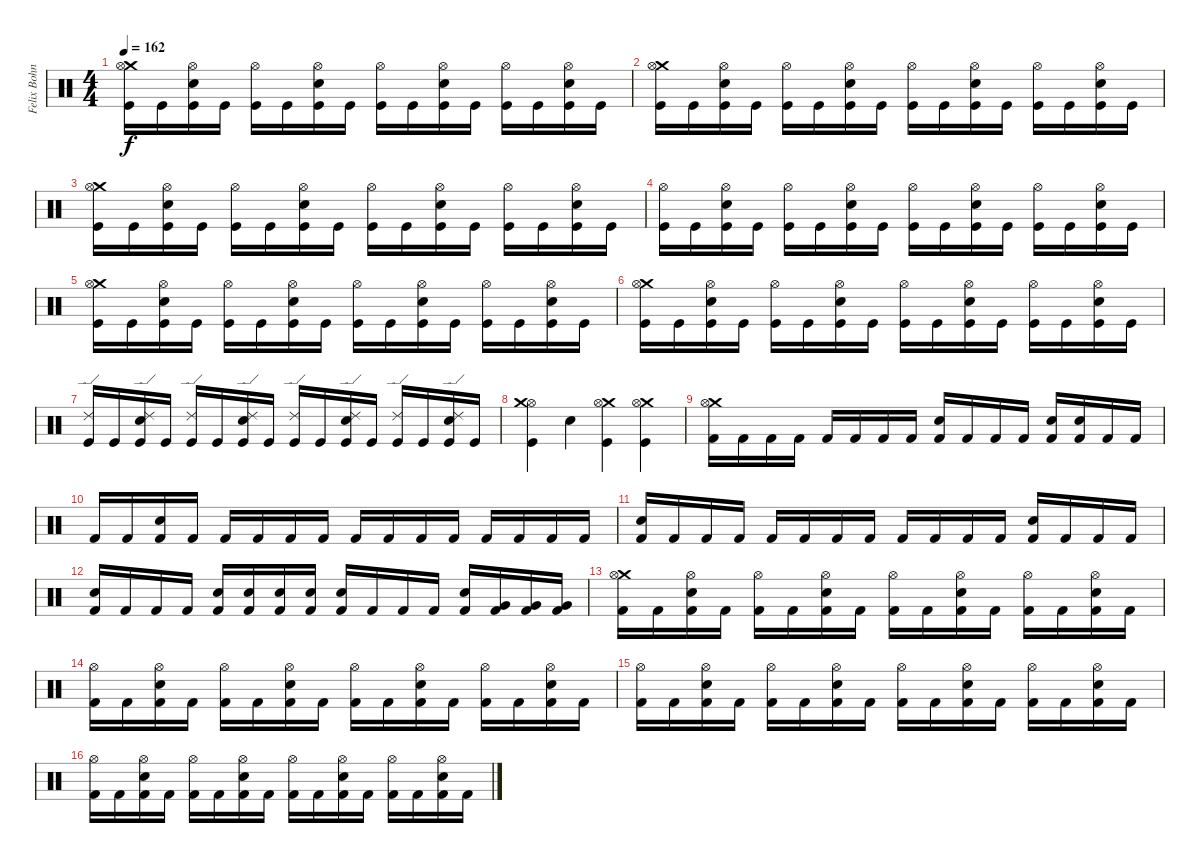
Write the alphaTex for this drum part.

\track ("Felix Bohnke" "Felix Bohn") {instrument percussion}
\staff {score}
\articulation defaults
\ts (4 4)
\tempo 162
\clef neutral
\ks c
("Crash medium (hit)" "Hi-Hat (open)" "Kick (hit)").16{dy f} "Kick (hit)".16 ("Electric Snare (hit)" "Hi-Hat (open)" "Kick (hit)").16 "Kick (hit)".16 ("Hi-Hat (open)" "Kick (hit)").16 "Kick (hit)".16 ("Electric Snare (hit)" "Hi-Hat (open)" "Kick (hit)").16 "Kick (hit)".16 ("Hi-Hat (open)" "Kick (hit)").16 "Kick (hit)".16 ("Electric Snare (hit)" "Hi-Hat (open)" "Kick (hit)").16 "Kick (hit)".16 ("Hi-Hat (open)" "Kick (hit)").16 "Kick (hit)".16 ("Electric Snare (hit)" "Hi-Hat (open)" "Kick (hit)").16 "Kick (hit)".16 |
("Crash medium (hit)" "Hi-Hat (open)" "Kick (hit)").16 "Kick (hit)".16 ("Electric Snare (hit)" "Hi-Hat (open)" "Kick (hit)").16 "Kick (hit)".16 ("Hi-Hat (open)" "Kick (hit)").16 "Kick (hit)".16 ("Electric Snare (hit)" "Hi-Hat (open)" "Kick (hit)").16 "Kick (hit)".16 ("Hi-Hat (open)" "Kick (hit)").16 "Kick (hit)".16 ("Electric Snare (hit)" "Hi-Hat (open)" "Kick (hit)").16 "Kick (hit)".16 ("Hi-Hat (open)" "Kick (hit)").16 "Kick (hit)".16 ("Electric Snare (hit)" "Hi-Hat (open)" "Kick (hit)").16 "Kick (hit)".16 |
("Crash medium (hit)" "Hi-Hat (open)" "Kick (hit)").16 "Kick (hit)".16 ("Electric Snare (hit)" "Hi-Hat (open)" "Kick (hit)").16 "Kick (hit)".16 ("Hi-Hat (open)" "Kick (hit)").16 "Kick (hit)".16 ("Electric Snare (hit)" "Hi-Hat (open)" "Kick (hit)").16 "Kick (hit)".16 ("Hi-Hat (open)" "Kick (hit)").16 "Kick (hit)".16 ("Electric Snare (hit)" "Hi-Hat (open)" "Kick (hit)").16 "Kick (hit)".16 ("Hi-Hat (open)" "Kick (hit)").16 "Kick (hit)".16 ("Electric Snare (hit)" "Hi-Hat (open)" "Kick (hit)").16 "Kick (hit)".16 |
("Hi-Hat (open)" "Kick (hit)").16 "Kick (hit)".16 ("Electric Snare (hit)" "Hi-Hat (open)" "Kick (hit)").16 "Kick (hit)".16 ("Hi-Hat (open)" "Kick (hit)").16 "Kick (hit)".16 ("Electric Snare (hit)" "Hi-Hat (open)" "Kick (hit)").16 "Kick (hit)".16 ("Hi-Hat (open)" "Kick (hit)").16 "Kick (hit)".16 ("Electric Snare (hit)" "Hi-Hat (open)" "Kick (hit)").16 "Kick (hit)".16 ("Hi-Hat (open)" "Kick (hit)").16 "Kick (hit)".16 ("Electric Snare (hit)" "Hi-Hat (open)" "Kick (hit)").16 "Kick (hit)".16 |
("Crash medium (hit)" "Hi-Hat (open)" "Kick (hit)").16 "Kick (hit)".16 ("Electric Snare (hit)" "Hi-Hat (open)" "Kick (hit)").16 "Kick (hit)".16 ("Hi-Hat (open)" "Kick (hit)").16 "Kick (hit)".16 ("Electric Snare (hit)" "Hi-Hat (open)" "Kick (hit)").16 "Kick (hit)".16 ("Hi-Hat (open)" "Kick (hit)").16 "Kick (hit)".16 ("Electric Snare (hit)" "Hi-Hat (open)" "Kick (hit)").16 "Kick (hit)".16 ("Hi-Hat (open)" "Kick (hit)").16 "Kick (hit)".16 ("Electric Snare (hit)" "Hi-Hat (open)" "Kick (hit)").16 "Kick (hit)".16 |
("Crash medium (hit)" "Hi-Hat (open)" "Kick (hit)").16 "Kick (hit)".16 ("Electric Snare (hit)" "Hi-Hat (open)" "Kick (hit)").16 "Kick (hit)".16 ("Hi-Hat (open)" "Kick (hit)").16 "Kick (hit)".16 ("Electric Snare (hit)" "Hi-Hat (open)" "Kick (hit)").16 "Kick (hit)".16 ("Hi-Hat (open)" "Kick (hit)").16 "Kick (hit)".16 ("Electric Snare (hit)" "Hi-Hat (open)" "Kick (hit)").16 "Kick (hit)".16 ("Hi-Hat (open)" "Kick (hit)").16 "Kick (hit)".16 ("Electric Snare (hit)" "Hi-Hat (open)" "Kick (hit)").16 "Kick (hit)".16 |
("Kick (hit)" "Ride (edge) 2").16 "Kick (hit)".16 ("Electric Snare (hit)" "Kick (hit)" "Ride (edge) 2").16 "Kick (hit)".16 ("Kick (hit)" "Ride (edge) 2").16 "Kick (hit)".16 ("Electric Snare (hit)" "Kick (hit)" "Ride (edge) 2").16 "Kick (hit)".16 ("Kick (hit)" "Ride (edge) 2").16 "Kick (hit)".16 ("Electric Snare (hit)" "Kick (hit)" "Ride (edge) 2").16 "Kick (hit)".16 ("Kick (hit)" "Ride (edge) 2").16 "Kick (hit)".16 ("Electric Snare (hit)" "Kick (hit)" "Ride (edge) 2").16 "Kick (hit)".16 |
("Kick (hit)" "Hi-Hat (open)" "Crash medium (hit)").4 "Electric Snare (hit)".4 ("Crash medium (hit)" "Hi-Hat (open)" "Kick (hit)").4 ("Crash medium (hit)" "Hi-Hat (open)" "Kick (hit)").4 |
("Crash medium (hit)" "Hi-Hat (open)" "Kick (hit) 2").16 "Kick (hit) 2".16 "Kick (hit) 2".16 "Kick (hit) 2".16 "Kick (hit) 2".16 "Kick (hit) 2".16 "Kick (hit) 2".16 "Kick (hit) 2".16 ("Electric Snare (hit)" "Kick (hit) 2").16 "Kick (hit) 2".16 "Kick (hit) 2".16 "Kick (hit) 2".16 ("Electric Snare (hit)" "Kick (hit) 2").16 ("Electric Snare (hit)" "Kick (hit) 2").16 "Kick (hit) 2".16 "Kick (hit) 2".16 |
"Kick (hit) 2".16 "Kick (hit) 2".16 ("Electric Snare (hit)" "Kick (hit) 2").16 "Kick (hit) 2".16 "Kick (hit) 2".16 "Kick (hit) 2".16 "Kick (hit) 2".16 "Kick (hit) 2".16 "Kick (hit) 2".16 "Kick (hit) 2".16 "Kick (hit) 2".16 "Kick (hit) 2".16 "Kick (hit) 2".16 "Kick (hit) 2".16 "Kick (hit) 2".16 "Kick (hit) 2".16 |
("Electric Snare (hit)" "Kick (hit) 2").16 "Kick (hit) 2".16 "Kick (hit) 2".16 "Kick (hit) 2".16 "Kick (hit) 2".16 "Kick (hit) 2".16 "Kick (hit) 2".16 "Kick (hit) 2".16 "Kick (hit) 2".16 "Kick (hit) 2".16 "Kick (hit) 2".16 "Kick (hit) 2".16 ("Electric Snare (hit)" "Kick (hit) 2").16 "Kick (hit) 2".16 "Kick (hit) 2".16 "Kick (hit) 2".16 |
("Electric Snare (hit)" "Kick (hit) 2").16 "Kick (hit) 2".16 "Kick (hit) 2".16 "Kick (hit) 2".16 ("Electric Snare (hit)" "Kick (hit) 2").16 ("Electric Snare (hit)" "Kick (hit) 2").16 ("Electric Snare (hit)" "Kick (hit) 2").16 ("Electric Snare (hit)" "Kick (hit) 2").16 ("Electric Snare (hit)" "Kick (hit) 2").16 "Kick (hit) 2".16 "Kick (hit) 2".16 "Kick (hit) 2".16 ("Electric Snare (hit)" "Kick (hit) 2").16 ("Very Low Tom (hit)" "Kick (hit) 2").16 ("Very Low Tom (hit)" "Kick (hit) 2").16 ("Very Low Tom (hit)" "Kick (hit) 2").16 |
("Crash medium (hit)" "Hi-Hat (open)" "Kick (hit) 2").16 "Kick (hit) 2".16 ("Electric Snare (hit)" "Hi-Hat (open)" "Kick (hit) 2").16 "Kick (hit) 2".16 ("Hi-Hat (open)" "Kick (hit) 2").16 "Kick (hit) 2".16 ("Electric Snare (hit)" "Hi-Hat (open)" "Kick (hit) 2").16 "Kick (hit) 2".16 ("Hi-Hat (open)" "Kick (hit) 2").16 "Kick (hit) 2".16 ("Electric Snare (hit)" "Hi-Hat (open)" "Kick (hit) 2").16 "Kick (hit) 2".16 ("Hi-Hat (open)" "Kick (hit) 2").16 "Kick (hit) 2".16 ("Electric Snare (hit)" "Hi-Hat (open)" "Kick (hit) 2").16 "Kick (hit) 2".16 |
("Hi-Hat (open)" "Kick (hit) 2").16 "Kick (hit) 2".16 ("Electric Snare (hit)" "Hi-Hat (open)" "Kick (hit) 2").16 "Kick (hit) 2".16 ("Hi-Hat (open)" "Kick (hit) 2").16 "Kick (hit) 2".16 ("Electric Snare (hit)" "Hi-Hat (open)" "Kick (hit) 2").16 "Kick (hit) 2".16 ("Hi-Hat (open)" "Kick (hit) 2").16 "Kick (hit) 2".16 ("Electric Snare (hit)" "Hi-Hat (open)" "Kick (hit) 2").16 "Kick (hit) 2".16 ("Hi-Hat (open)" "Kick (hit) 2").16 "Kick (hit) 2".16 ("Electric Snare (hit)" "Hi-Hat (open)" "Kick (hit) 2").16 "Kick (hit) 2".16 |
("Hi-Hat (open)" "Kick (hit) 2").16 "Kick (hit) 2".16 ("Electric Snare (hit)" "Hi-Hat (open)" "Kick (hit) 2").16 "Kick (hit) 2".16 ("Hi-Hat (open)" "Kick (hit) 2").16 "Kick (hit) 2".16 ("Electric Snare (hit)" "Hi-Hat (open)" "Kick (hit) 2").16 "Kick (hit) 2".16 ("Hi-Hat (open)" "Kick (hit) 2").16 "Kick (hit) 2".16 ("Electric Snare (hit)" "Hi-Hat (open)" "Kick (hit) 2").16 "Kick (hit) 2".16 ("Hi-Hat (open)" "Kick (hit) 2").16 "Kick (hit) 2".16 ("Electric Snare (hit)" "Hi-Hat (open)" "Kick (hit) 2").16 "Kick (hit) 2".16 |
("Hi-Hat (open)" "Kick (hit) 2").16 "Kick (hit) 2".16 ("Electric Snare (hit)" "Hi-Hat (open)" "Kick (hit) 2").16 "Kick (hit) 2".16 ("Hi-Hat (open)" "Kick (hit) 2").16 "Kick (hit) 2".16 ("Electric Snare (hit)" "Hi-Hat (open)" "Kick (hit) 2").16 "Kick (hit) 2".16 ("Hi-Hat (open)" "Kick (hit) 2").16 "Kick (hit) 2".16 ("Electric Snare (hit)" "Hi-Hat (open)" "Kick (hit) 2").16 "Kick (hit) 2".16 ("Hi-Hat (open)" "Kick (hit) 2").16 "Kick (hit) 2".16 ("Electric Snare (hit)" "Hi-Hat (open)" "Kick (hit) 2").16 "Kick (hit) 2".16
